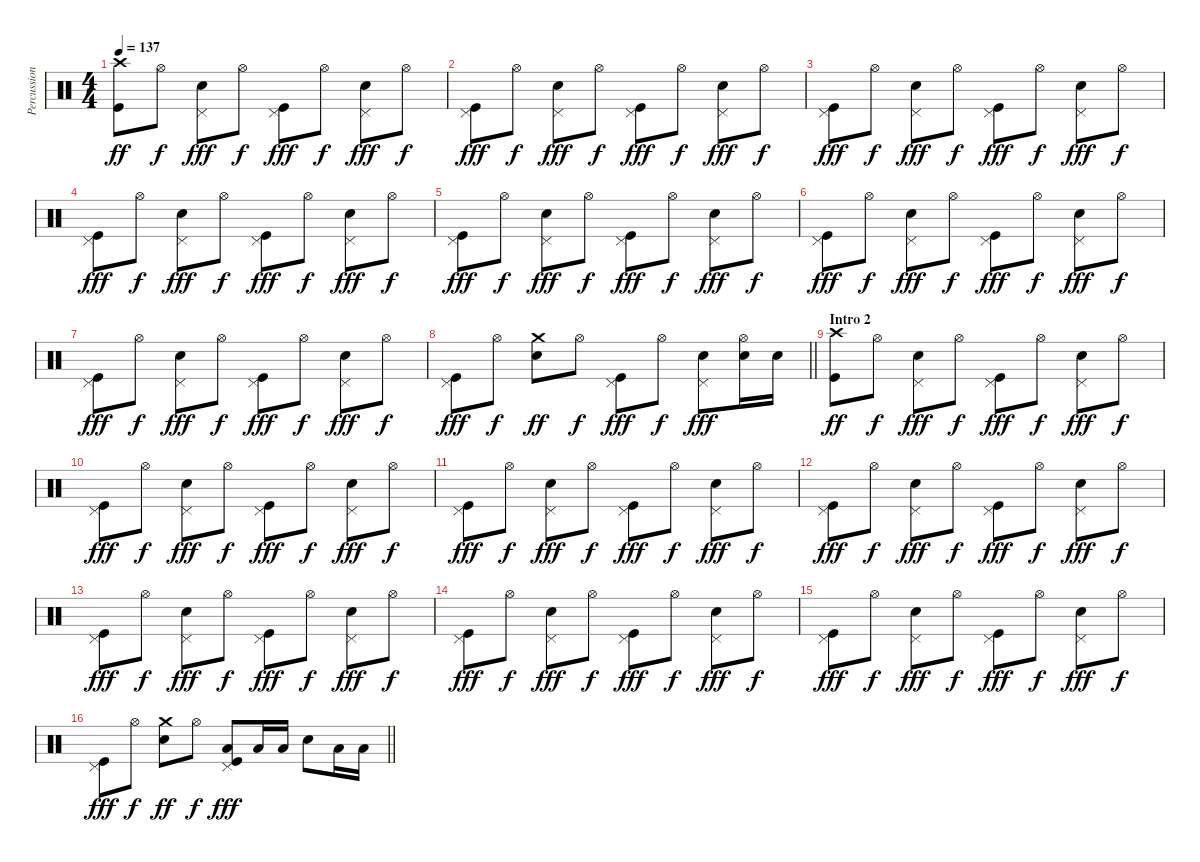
\track ("Percussions" "Percussion") {instrument percussion}
\staff {score}
\articulation defaults
\ts (4 4)
\tempo 137
\clef neutral
\ks c
("Kick (hit)" "Crash high (hit)").8{dy ff} "Hi-Hat (open)".8{dy f} ("Electric Snare (hit)" "Pedal Hi-Hat (hit)").8{dy fff} "Hi-Hat (open)".8{dy f} ("Kick (hit)" "Pedal Hi-Hat (hit)").8{dy fff} "Hi-Hat (open)".8{dy f} ("Electric Snare (hit)" "Pedal Hi-Hat (hit)").8{dy fff} "Hi-Hat (open)".8{dy f} |
("Kick (hit)" "Pedal Hi-Hat (hit)").8{dy fff} "Hi-Hat (open)".8{dy f} ("Electric Snare (hit)" "Pedal Hi-Hat (hit)").8{dy fff} "Hi-Hat (open)".8{dy f} ("Kick (hit)" "Pedal Hi-Hat (hit)").8{dy fff} "Hi-Hat (open)".8{dy f} ("Electric Snare (hit)" "Pedal Hi-Hat (hit)").8{dy fff} "Hi-Hat (open)".8{dy f} |
("Kick (hit)" "Pedal Hi-Hat (hit)").8{dy fff} "Hi-Hat (open)".8{dy f} ("Electric Snare (hit)" "Pedal Hi-Hat (hit)").8{dy fff} "Hi-Hat (open)".8{dy f} ("Kick (hit)" "Pedal Hi-Hat (hit)").8{dy fff} "Hi-Hat (open)".8{dy f} ("Electric Snare (hit)" "Pedal Hi-Hat (hit)").8{dy fff} "Hi-Hat (open)".8{dy f} |
("Kick (hit)" "Pedal Hi-Hat (hit)").8{dy fff} "Hi-Hat (open)".8{dy f} ("Electric Snare (hit)" "Pedal Hi-Hat (hit)").8{dy fff} "Hi-Hat (open)".8{dy f} ("Kick (hit)" "Pedal Hi-Hat (hit)").8{dy fff} "Hi-Hat (open)".8{dy f} ("Electric Snare (hit)" "Pedal Hi-Hat (hit)").8{dy fff} "Hi-Hat (open)".8{dy f} |
("Kick (hit)" "Pedal Hi-Hat (hit)").8{dy fff} "Hi-Hat (open)".8{dy f} ("Electric Snare (hit)" "Pedal Hi-Hat (hit)").8{dy fff} "Hi-Hat (open)".8{dy f} ("Kick (hit)" "Pedal Hi-Hat (hit)").8{dy fff} "Hi-Hat (open)".8{dy f} ("Electric Snare (hit)" "Pedal Hi-Hat (hit)").8{dy fff} "Hi-Hat (open)".8{dy f} |
("Kick (hit)" "Pedal Hi-Hat (hit)").8{dy fff} "Hi-Hat (open)".8{dy f} ("Electric Snare (hit)" "Pedal Hi-Hat (hit)").8{dy fff} "Hi-Hat (open)".8{dy f} ("Kick (hit)" "Pedal Hi-Hat (hit)").8{dy fff} "Hi-Hat (open)".8{dy f} ("Electric Snare (hit)" "Pedal Hi-Hat (hit)").8{dy fff} "Hi-Hat (open)".8{dy f} |
("Kick (hit)" "Pedal Hi-Hat (hit)").8{dy fff} "Hi-Hat (open)".8{dy f} ("Electric Snare (hit)" "Pedal Hi-Hat (hit)").8{dy fff} "Hi-Hat (open)".8{dy f} ("Kick (hit)" "Pedal Hi-Hat (hit)").8{dy fff} "Hi-Hat (open)".8{dy f} ("Electric Snare (hit)" "Pedal Hi-Hat (hit)").8{dy fff} "Hi-Hat (open)".8{dy f} |
\barLineRight lightlight
("Kick (hit)" "Pedal Hi-Hat (hit)").8{dy fff} "Hi-Hat (open)".8{dy f} ("Electric Snare (hit)" "Crash medium (hit)").8{dy ff} "Hi-Hat (open)".8{dy f} ("Kick (hit)" "Pedal Hi-Hat (hit)").8{dy fff} "Hi-Hat (open)".8{dy f} ("Electric Snare (hit)" "Pedal Hi-Hat (hit)").8{dy fff} ("Electric Snare (hit)" "Hi-Hat (open)").16 "Electric Snare (hit)".16 |
\section ("" "Intro 2")
("Kick (hit)" "Crash high (hit)").8{dy ff} "Hi-Hat (open)".8{dy f} ("Electric Snare (hit)" "Pedal Hi-Hat (hit)").8{dy fff} "Hi-Hat (open)".8{dy f} ("Kick (hit)" "Pedal Hi-Hat (hit)").8{dy fff} "Hi-Hat (open)".8{dy f} ("Electric Snare (hit)" "Pedal Hi-Hat (hit)").8{dy fff} "Hi-Hat (open)".8{dy f} |
("Kick (hit)" "Pedal Hi-Hat (hit)").8{dy fff} "Hi-Hat (open)".8{dy f} ("Electric Snare (hit)" "Pedal Hi-Hat (hit)").8{dy fff} "Hi-Hat (open)".8{dy f} ("Kick (hit)" "Pedal Hi-Hat (hit)").8{dy fff} "Hi-Hat (open)".8{dy f} ("Electric Snare (hit)" "Pedal Hi-Hat (hit)").8{dy fff} "Hi-Hat (open)".8{dy f} |
("Kick (hit)" "Pedal Hi-Hat (hit)").8{dy fff} "Hi-Hat (open)".8{dy f} ("Electric Snare (hit)" "Pedal Hi-Hat (hit)").8{dy fff} "Hi-Hat (open)".8{dy f} ("Kick (hit)" "Pedal Hi-Hat (hit)").8{dy fff} "Hi-Hat (open)".8{dy f} ("Electric Snare (hit)" "Pedal Hi-Hat (hit)").8{dy fff} "Hi-Hat (open)".8{dy f} |
("Kick (hit)" "Pedal Hi-Hat (hit)").8{dy fff} "Hi-Hat (open)".8{dy f} ("Electric Snare (hit)" "Pedal Hi-Hat (hit)").8{dy fff} "Hi-Hat (open)".8{dy f} ("Kick (hit)" "Pedal Hi-Hat (hit)").8{dy fff} "Hi-Hat (open)".8{dy f} ("Electric Snare (hit)" "Pedal Hi-Hat (hit)").8{dy fff} "Hi-Hat (open)".8{dy f} |
("Kick (hit)" "Pedal Hi-Hat (hit)").8{dy fff} "Hi-Hat (open)".8{dy f} ("Electric Snare (hit)" "Pedal Hi-Hat (hit)").8{dy fff} "Hi-Hat (open)".8{dy f} ("Kick (hit)" "Pedal Hi-Hat (hit)").8{dy fff} "Hi-Hat (open)".8{dy f} ("Electric Snare (hit)" "Pedal Hi-Hat (hit)").8{dy fff} "Hi-Hat (open)".8{dy f} |
("Kick (hit)" "Pedal Hi-Hat (hit)").8{dy fff} "Hi-Hat (open)".8{dy f} ("Electric Snare (hit)" "Pedal Hi-Hat (hit)").8{dy fff} "Hi-Hat (open)".8{dy f} ("Kick (hit)" "Pedal Hi-Hat (hit)").8{dy fff} "Hi-Hat (open)".8{dy f} ("Electric Snare (hit)" "Pedal Hi-Hat (hit)").8{dy fff} "Hi-Hat (open)".8{dy f} |
("Kick (hit)" "Pedal Hi-Hat (hit)").8{dy fff} "Hi-Hat (open)".8{dy f} ("Electric Snare (hit)" "Pedal Hi-Hat (hit)").8{dy fff} "Hi-Hat (open)".8{dy f} ("Kick (hit)" "Pedal Hi-Hat (hit)").8{dy fff} "Hi-Hat (open)".8{dy f} ("Electric Snare (hit)" "Pedal Hi-Hat (hit)").8{dy fff} "Hi-Hat (open)".8{dy f} |
\barLineRight lightlight
("Kick (hit)" "Pedal Hi-Hat (hit)").8{dy fff} "Hi-Hat (open)".8{dy f} ("Electric Snare (hit)" "Crash medium (hit)").8{dy ff} "Hi-Hat (open)".8{dy f} ("Kick (hit)" "Low Tom (hit)" "Pedal Hi-Hat (hit)").8{dy fff} "Low Tom (hit)".16 "Low Tom (hit)".16 "Electric Snare (hit)".8 "Low Tom (hit)".16 "Low Tom (hit)".16
